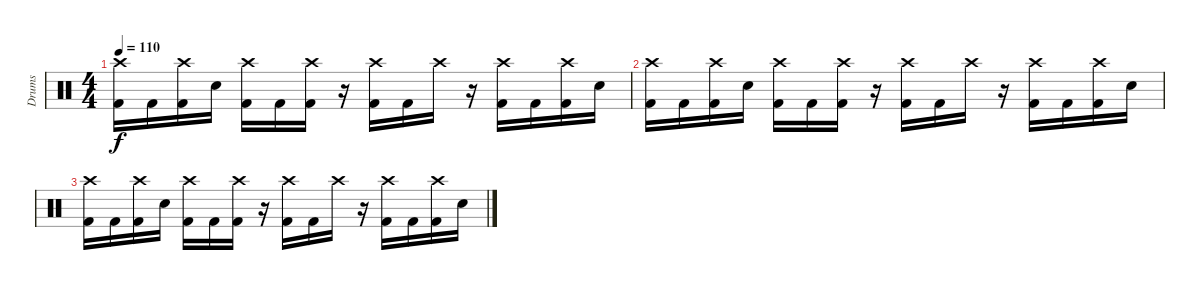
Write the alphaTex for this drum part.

\track ("Drums" "Drums") {instrument percussion}
\staff {score}
\articulation defaults
\ts (4 4)
\tempo 110
\clef neutral
\ks c
("Crash high (hit)" "Kick (hit) 2").16{dy f} "Kick (hit) 2".16 ("Crash high (hit)" "Kick (hit) 2").16 "Snare (hit) 2".16 ("Crash high (hit)" "Kick (hit) 2").16 "Kick (hit) 2".16 ("Crash high (hit)" "Kick (hit) 2").16 r.16 ("Crash high (hit)" "Kick (hit) 2").16 "Kick (hit) 2".16 "Crash high (hit)".16 r.16 ("Crash high (hit)" "Kick (hit) 2").16 "Kick (hit) 2".16 ("Crash high (hit)" "Kick (hit) 2").16 "Snare (hit) 2".16 |
("Crash high (hit)" "Kick (hit) 2").16 "Kick (hit) 2".16 ("Crash high (hit)" "Kick (hit) 2").16 "Snare (hit) 2".16 ("Crash high (hit)" "Kick (hit) 2").16 "Kick (hit) 2".16 ("Crash high (hit)" "Kick (hit) 2").16 r.16 ("Crash high (hit)" "Kick (hit) 2").16 "Kick (hit) 2".16 "Crash high (hit)".16 r.16 ("Crash high (hit)" "Kick (hit) 2").16 "Kick (hit) 2".16 ("Crash high (hit)" "Kick (hit) 2").16 "Snare (hit) 2".16 |
("Crash high (hit)" "Kick (hit) 2").16 "Kick (hit) 2".16 ("Crash high (hit)" "Kick (hit) 2").16 "Snare (hit) 2".16 ("Crash high (hit)" "Kick (hit) 2").16 "Kick (hit) 2".16 ("Crash high (hit)" "Kick (hit) 2").16 r.16 ("Crash high (hit)" "Kick (hit) 2").16 "Kick (hit) 2".16 "Crash high (hit)".16 r.16 ("Crash high (hit)" "Kick (hit) 2").16 "Kick (hit) 2".16 ("Crash high (hit)" "Kick (hit) 2").16 "Snare (hit) 2".16
